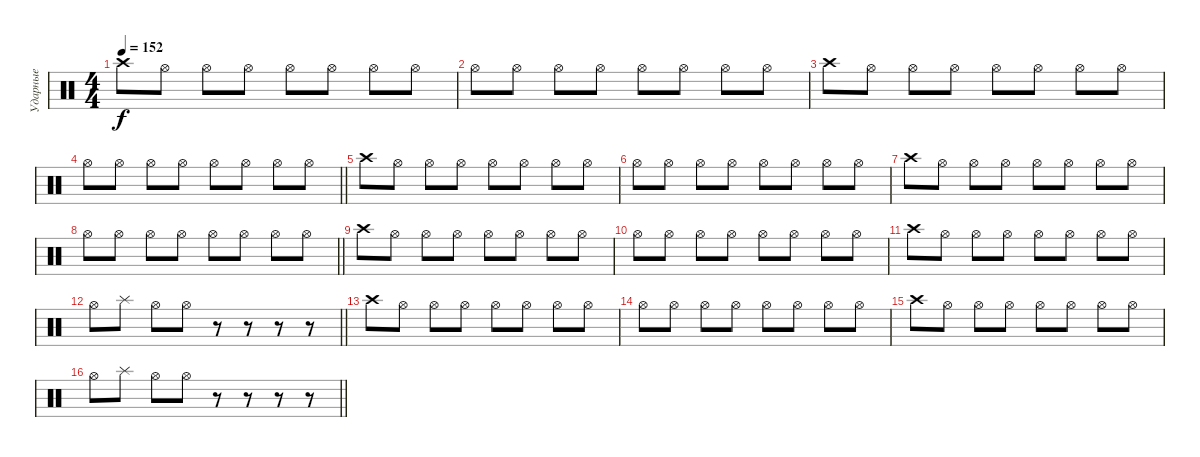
\track ("Ударные" "Ударные") {instrument percussion}
\staff {score}
\articulation defaults
\ts (4 4)
\tempo 152
\clef neutral
\ks c "Crash high (hit)".8{dy f} "Hi-Hat (open)".8 "Hi-Hat (open)".8 "Hi-Hat (open)".8 "Hi-Hat (open)".8 "Hi-Hat (open)".8 "Hi-Hat (open)".8 "Hi-Hat (open)".8
|
"Hi-Hat (open)".8 "Hi-Hat (open)".8 "Hi-Hat (open)".8 "Hi-Hat (open)".8 "Hi-Hat (open)".8 "Hi-Hat (open)".8 "Hi-Hat (open)".8 "Hi-Hat (open)".8 |
"Crash high (hit)".8 "Hi-Hat (open)".8 "Hi-Hat (open)".8 "Hi-Hat (open)".8 "Hi-Hat (open)".8 "Hi-Hat (open)".8 "Hi-Hat (open)".8 "Hi-Hat (open)".8 |
\barLineRight lightlight "Hi-Hat (open)".8 "Hi-Hat (open)".8 "Hi-Hat (open)".8 "Hi-Hat (open)".8 "Hi-Hat (open)".8 "Hi-Hat (open)".8 "Hi-Hat (open)".8 "Hi-Hat (open)".8
|
"Crash high (hit)".8 "Hi-Hat (open)".8 "Hi-Hat (open)".8 "Hi-Hat (open)".8 "Hi-Hat (open)".8 "Hi-Hat (open)".8 "Hi-Hat (open)".8 "Hi-Hat (open)".8 |
"Hi-Hat (open)".8 "Hi-Hat (open)".8 "Hi-Hat (open)".8 "Hi-Hat (open)".8 "Hi-Hat (open)".8 "Hi-Hat (open)".8 "Hi-Hat (open)".8 "Hi-Hat (open)".8 |
"Crash high (hit)".8 "Hi-Hat (open)".8 "Hi-Hat (open)".8 "Hi-Hat (open)".8 "Hi-Hat (open)".8 "Hi-Hat (open)".8 "Hi-Hat (open)".8 "Hi-Hat (open)".8 |
\barLineRight lightlight "Hi-Hat (open)".8 "Hi-Hat (open)".8 "Hi-Hat (open)".8 "Hi-Hat (open)".8 "Hi-Hat (open)".8 "Hi-Hat (open)".8 "Hi-Hat (open)".8 "Hi-Hat (open)".8
|
"Crash high (hit)".8 "Hi-Hat (open)".8 "Hi-Hat (open)".8 "Hi-Hat (open)".8 "Hi-Hat (open)".8 "Hi-Hat (open)".8 "Hi-Hat (open)".8 "Hi-Hat (open)".8 |
"Hi-Hat (open)".8 "Hi-Hat (open)".8 "Hi-Hat (open)".8 "Hi-Hat (open)".8 "Hi-Hat (open)".8 "Hi-Hat (open)".8 "Hi-Hat (open)".8 "Hi-Hat (open)".8 |
"Crash high (hit)".8 "Hi-Hat (open)".8 "Hi-Hat (open)".8 "Hi-Hat (open)".8 "Hi-Hat (open)".8 "Hi-Hat (open)".8 "Hi-Hat (open)".8 "Hi-Hat (open)".8 |
\barLineRight lightlight "Hi-Hat (open)".8 "Splash (hit)".8 "Hi-Hat (open)".8 "Hi-Hat (open)".8
r.8 r.8 r.8 r.8 |
"Crash high (hit)".8 "Hi-Hat (open)".8 "Hi-Hat (open)".8 "Hi-Hat (open)".8 "Hi-Hat (open)".8 "Hi-Hat (open)".8 "Hi-Hat (open)".8 "Hi-Hat (open)".8 |
"Hi-Hat (open)".8 "Hi-Hat (open)".8 "Hi-Hat (open)".8 "Hi-Hat (open)".8 "Hi-Hat (open)".8 "Hi-Hat (open)".8 "Hi-Hat (open)".8 "Hi-Hat (open)".8 |
"Crash high (hit)".8 "Hi-Hat (open)".8 "Hi-Hat (open)".8 "Hi-Hat (open)".8 "Hi-Hat (open)".8 "Hi-Hat (open)".8 "Hi-Hat (open)".8 "Hi-Hat (open)".8 |
\barLineRight lightlight "Hi-Hat (open)".8 "Splash (hit)".8 "Hi-Hat (open)".8 "Hi-Hat (open)".8
r.8 r.8 r.8 r.8
